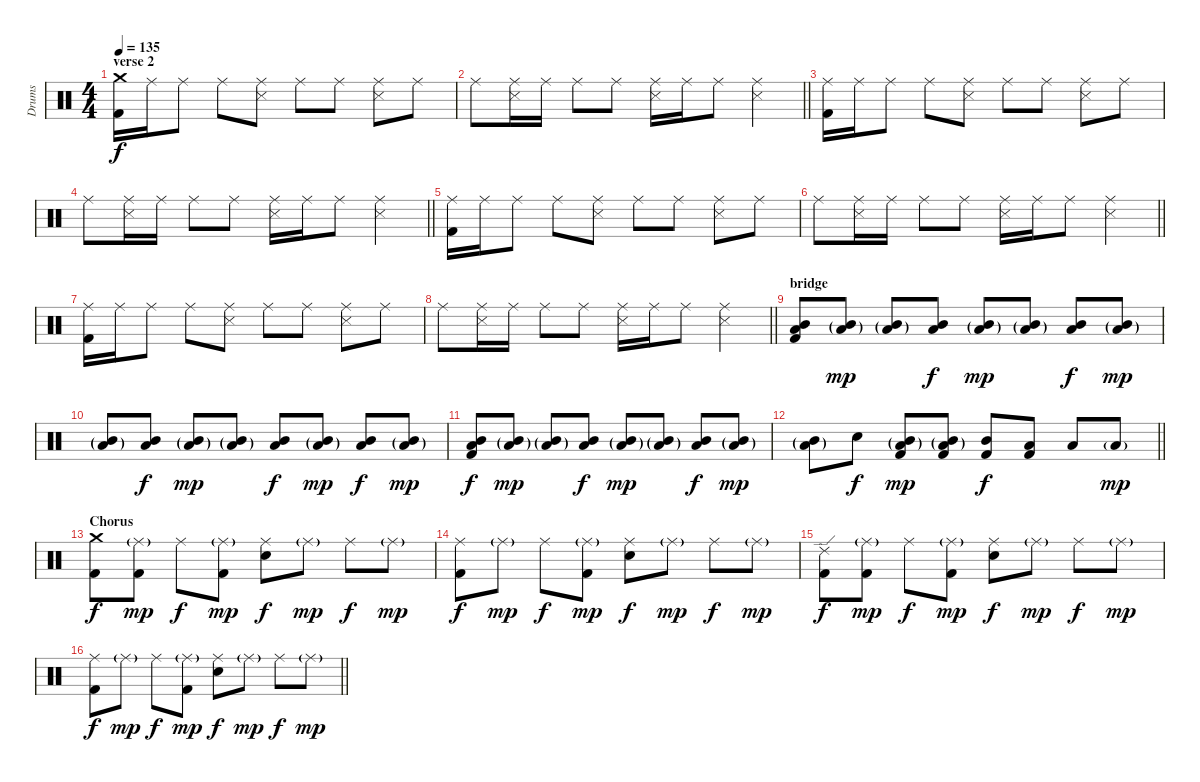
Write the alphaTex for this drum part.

\track ("Drums" "Drums") {instrument percussion}
\staff {score}
\articulation defaults
\ts (4 4)
\section ("" "verse 2")
\tempo 135
\clef neutral
\ks c
("Crash medium (hit)" "Kick (hit) 2").16{dy f} "Ride (middle)".16 "Ride (middle)".8 "Ride (middle)".8 ("Ride (middle)" "Snare (side stick) 3").8 "Ride (middle)".8 "Ride (middle)".8 ("Ride (middle)" "Snare (side stick) 3").8 "Ride (middle)".8 |
\barLineRight lightlight "Ride (middle)".8
("Ride (middle)" "Snare (side stick) 3").16 "Ride (middle)".16 "Ride (middle)".8 "Ride (middle)".8 ("Ride (middle)" "Snare (side stick) 3").16 "Ride (middle)".16 "Ride (middle)".8 ("Ride (middle)" "Snare (side stick) 3").4 |
("Ride (middle)" "Kick (hit) 2").16 "Ride (middle)".16 "Ride (middle)".8 "Ride (middle)".8 ("Ride (middle)" "Snare (side stick) 3").8 "Ride (middle)".8 "Ride (middle)".8 ("Ride (middle)" "Snare (side stick) 3").8 "Ride (middle)".8 |
\barLineRight lightlight "Ride (middle)".8
("Ride (middle)" "Snare (side stick) 3").16 "Ride (middle)".16 "Ride (middle)".8 "Ride (middle)".8 ("Ride (middle)" "Snare (side stick) 3").16 "Ride (middle)".16 "Ride (middle)".8 ("Ride (middle)" "Snare (side stick) 3").4 |
\section ("" "")
("Ride (middle)" "Kick (hit) 2").16 "Ride (middle)".16 "Ride (middle)".8 "Ride (middle)".8 ("Ride (middle)" "Snare (side stick) 3").8 "Ride (middle)".8 "Ride (middle)".8 ("Ride (middle)" "Snare (side stick) 3").8 "Ride (middle)".8 |
\barLineRight lightlight "Ride (middle)".8
("Ride (middle)" "Snare (side stick) 3").16 "Ride (middle)".16 "Ride (middle)".8 "Ride (middle)".8 ("Ride (middle)" "Snare (side stick) 3").16 "Ride (middle)".16 "Ride (middle)".8 ("Ride (middle)" "Snare (side stick) 3").4 |
("Ride (middle)" "Kick (hit) 2").16 "Ride (middle)".16 "Ride (middle)".8 "Ride (middle)".8 ("Ride (middle)" "Snare (side stick) 3").8 "Ride (middle)".8 "Ride (middle)".8 ("Ride (middle)" "Snare (side stick) 3").8 "Ride (middle)".8 |
\barLineRight lightlight "Ride (middle)".8
("Ride (middle)" "Snare (side stick) 3").16 "Ride (middle)".16 "Ride (middle)".8 "Ride (middle)".8 ("Ride (middle)" "Snare (side stick) 3").16 "Ride (middle)".16 "Ride (middle)".8 ("Ride (middle)" "Snare (side stick) 3").4 |
\section ("" "bridge")
("Mid Tom (hit)" "Low Tom (hit)" "Kick (hit) 2").8 ("Mid Tom (hit)"{g} "Low Tom (hit)"{g}).8{dy mp} ("Mid Tom (hit)"{g} "Low Tom (hit)"{g}).8 ("Mid Tom (hit)" "Low Tom (hit)").8{dy f} ("Mid Tom (hit)"{g} "Low Tom (hit)"{g}).8{dy mp} ("Mid Tom (hit)"{g} "Low Tom (hit)"{g}).8 ("Mid Tom (hit)" "Low Tom (hit)").8{dy f} ("Mid Tom (hit)"{g} "Low Tom (hit)"{g}).8{dy mp} |
("Mid Tom (hit)"{g} "Low Tom (hit)"{g}).8 ("Mid Tom (hit)" "Low Tom (hit)").8{dy f} ("Mid Tom (hit)"{g} "Low Tom (hit)"{g}).8{dy mp} ("Mid Tom (hit)"{g} "Low Tom (hit)"{g}).8 ("Mid Tom (hit)" "Low Tom (hit)").8{dy f} ("Mid Tom (hit)"{g} "Low Tom (hit)"{g}).8{dy mp} ("Mid Tom (hit)" "Low Tom (hit)").8{dy f} ("Mid Tom (hit)"{g} "Low Tom (hit)"{g}).8{dy mp} |
("Mid Tom (hit)" "Low Tom (hit)" "Kick (hit) 2").8{dy f} ("Mid Tom (hit)"{g} "Low Tom (hit)"{g}).8{dy mp} ("Mid Tom (hit)"{g} "Low Tom (hit)"{g}).8 ("Mid Tom (hit)" "Low Tom (hit)").8{dy f} ("Mid Tom (hit)"{g} "Low Tom (hit)"{g}).8{dy mp} ("Mid Tom (hit)"{g} "Low Tom (hit)"{g}).8 ("Mid Tom (hit)" "Low Tom (hit)").8{dy f} ("Mid Tom (hit)"{g} "Low Tom (hit)"{g}).8{dy mp} |
\barLineRight lightlight
("Mid Tom (hit)"{g} "Low Tom (hit)"{g}).8 "Electric Snare (hit)".8{dy f} ("Mid Tom (hit)"{g} "Low Tom (hit)"{g} "Kick (hit) 2").8{dy mp} ("Mid Tom (hit)"{g} "Low Tom (hit)"{g} "Kick (hit) 2").8 ("Kick (hit) 2" "Mid Tom (hit)").8{dy f} ("Kick (hit) 2" "Low Tom (hit)").8 "Low Tom (hit)".8 "Low Tom (hit)"{g}.8{dy mp} |
\section ("" "Chorus")
("Crash medium (hit)" "Kick (hit) 2").8{dy f} ("Ride (middle)"{g} "Kick (hit) 2").8{dy mp} "Ride (middle)".8{dy f} ("Ride (middle)"{g} "Kick (hit) 2").8{dy mp} ("Ride (middle)" "Electric Snare (hit)").8{dy f} "Ride (middle)"{g}.8{dy mp} "Ride (middle)".8{dy f} "Ride (middle)"{g}.8{dy mp} |
("Kick (hit) 2" "Ride (middle)").8{dy f} "Ride (middle)"{g}.8{dy mp} "Ride (middle)".8{dy f} ("Kick (hit) 2" "Ride (middle)"{g}).8{dy mp} ("Electric Snare (hit)" "Ride (middle)").8{dy f} "Ride (middle)"{g}.8{dy mp} "Ride (middle)".8{dy f} "Ride (middle)"{g}.8{dy mp} |
("Ride (edge) 2" "Kick (hit) 2").8{dy f} ("Ride (middle)"{g} "Kick (hit) 2").8{dy mp} "Ride (middle)".8{dy f} ("Ride (middle)"{g} "Kick (hit) 2").8{dy mp} ("Ride (middle)" "Electric Snare (hit)").8{dy f} "Ride (middle)"{g}.8{dy mp} "Ride (middle)".8{dy f} "Ride (middle)"{g}.8{dy mp} |
\barLineRight lightlight
("Kick (hit) 2" "Ride (middle)").8{dy f} "Ride (middle)"{g}.8{dy mp} "Ride (middle)".8{dy f} ("Kick (hit) 2" "Ride (middle)"{g}).8{dy mp} ("Electric Snare (hit)" "Ride (middle)").8{dy f} "Ride (middle)"{g}.8{dy mp} "Ride (middle)".8{dy f} "Ride (middle)"{g}.8{dy mp}
